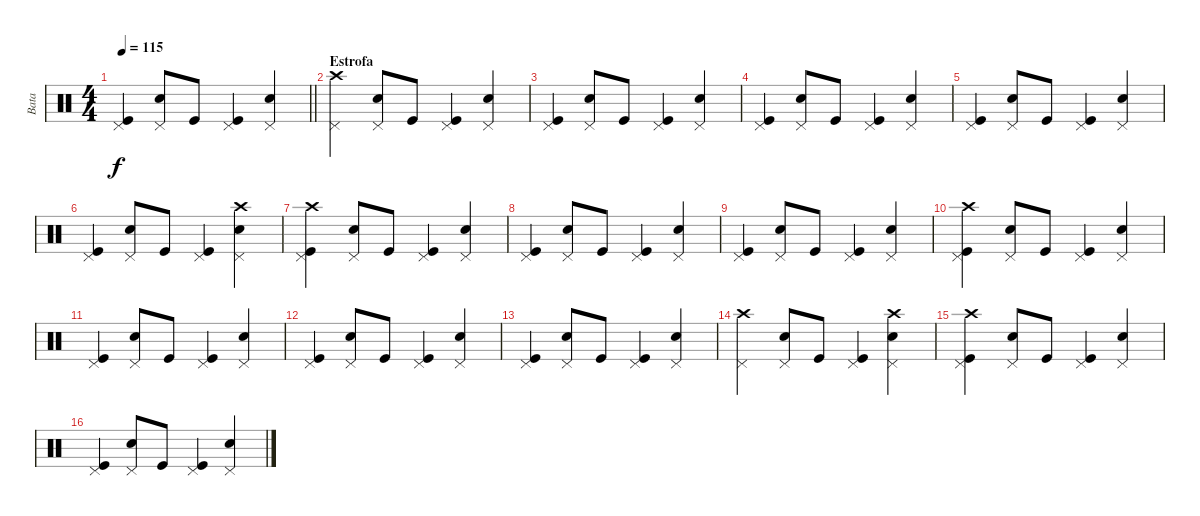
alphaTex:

\track ("Bata" "Bata") {instrument percussion}
\staff {score}
\articulation defaults
\ts (4 4)
\tempo 115
\clef neutral
\barLineRight lightlight
\ks c
("Kick (hit)" "Pedal Hi-Hat (hit)").4{dy f} ("Snare (hit) 2" "Pedal Hi-Hat (hit)").8 "Kick (hit)".8 ("Kick (hit)" "Pedal Hi-Hat (hit)").4 ("Snare (hit) 2" "Pedal Hi-Hat (hit)").4 |
\section ("" "Estrofa")
("Crash high (hit)" "Pedal Hi-Hat (hit)").4 ("Snare (hit) 2" "Pedal Hi-Hat (hit)").8 "Kick (hit)".8 ("Kick (hit)" "Pedal Hi-Hat (hit)").4 ("Snare (hit) 2" "Pedal Hi-Hat (hit)").4 |
("Kick (hit)" "Pedal Hi-Hat (hit)").4 ("Snare (hit) 2" "Pedal Hi-Hat (hit)").8 "Kick (hit)".8 ("Kick (hit)" "Pedal Hi-Hat (hit)").4 ("Snare (hit) 2" "Pedal Hi-Hat (hit)").4 |
("Kick (hit)" "Pedal Hi-Hat (hit)").4 ("Snare (hit) 2" "Pedal Hi-Hat (hit)").8 "Kick (hit)".8 ("Kick (hit)" "Pedal Hi-Hat (hit)").4 ("Snare (hit) 2" "Pedal Hi-Hat (hit)").4 |
("Kick (hit)" "Pedal Hi-Hat (hit)").4 ("Snare (hit) 2" "Pedal Hi-Hat (hit)").8 "Kick (hit)".8 ("Kick (hit)" "Pedal Hi-Hat (hit)").4 ("Snare (hit) 2" "Pedal Hi-Hat (hit)").4 |
("Kick (hit)" "Pedal Hi-Hat (hit)").4 ("Snare (hit) 2" "Pedal Hi-Hat (hit)").8 "Kick (hit)".8 ("Kick (hit)" "Pedal Hi-Hat (hit)").4 ("Snare (hit) 2" "Crash high (hit)" "Pedal Hi-Hat (hit)").4 |
("Kick (hit)" "Crash high (hit)" "Pedal Hi-Hat (hit)").4 ("Snare (hit) 2" "Pedal Hi-Hat (hit)").8 "Kick (hit)".8 ("Kick (hit)" "Pedal Hi-Hat (hit)").4 ("Snare (hit) 2" "Pedal Hi-Hat (hit)").4 |
("Kick (hit)" "Pedal Hi-Hat (hit)").4 ("Snare (hit) 2" "Pedal Hi-Hat (hit)").8 "Kick (hit)".8 ("Kick (hit)" "Pedal Hi-Hat (hit)").4 ("Snare (hit) 2" "Pedal Hi-Hat (hit)").4 |
("Kick (hit)" "Pedal Hi-Hat (hit)").4 ("Snare (hit) 2" "Pedal Hi-Hat (hit)").8 "Kick (hit)".8 ("Kick (hit)" "Pedal Hi-Hat (hit)").4 ("Snare (hit) 2" "Pedal Hi-Hat (hit)").4 |
("Kick (hit)" "Crash high (hit)" "Pedal Hi-Hat (hit)").4 ("Snare (hit) 2" "Pedal Hi-Hat (hit)").8 "Kick (hit)".8 ("Kick (hit)" "Pedal Hi-Hat (hit)").4 ("Snare (hit) 2" "Pedal Hi-Hat (hit)").4 |
("Kick (hit)" "Pedal Hi-Hat (hit)").4 ("Snare (hit) 2" "Pedal Hi-Hat (hit)").8 "Kick (hit)".8 ("Kick (hit)" "Pedal Hi-Hat (hit)").4 ("Snare (hit) 2" "Pedal Hi-Hat (hit)").4 |
("Kick (hit)" "Pedal Hi-Hat (hit)").4 ("Snare (hit) 2" "Pedal Hi-Hat (hit)").8 "Kick (hit)".8 ("Kick (hit)" "Pedal Hi-Hat (hit)").4 ("Snare (hit) 2" "Pedal Hi-Hat (hit)").4 |
("Kick (hit)" "Pedal Hi-Hat (hit)").4 ("Snare (hit) 2" "Pedal Hi-Hat (hit)").8 "Kick (hit)".8 ("Kick (hit)" "Pedal Hi-Hat (hit)").4 ("Snare (hit) 2" "Pedal Hi-Hat (hit)").4 |
("Crash high (hit)" "Pedal Hi-Hat (hit)").4 ("Snare (hit) 2" "Pedal Hi-Hat (hit)").8 "Kick (hit)".8 ("Kick (hit)" "Pedal Hi-Hat (hit)").4 ("Snare (hit) 2" "Crash high (hit)" "Pedal Hi-Hat (hit)").4 |
("Kick (hit)" "Crash high (hit)" "Pedal Hi-Hat (hit)").4 ("Snare (hit) 2" "Pedal Hi-Hat (hit)").8 "Kick (hit)".8 ("Kick (hit)" "Pedal Hi-Hat (hit)").4 ("Snare (hit) 2" "Pedal Hi-Hat (hit)").4 |
("Kick (hit)" "Pedal Hi-Hat (hit)").4 ("Snare (hit) 2" "Pedal Hi-Hat (hit)").8 "Kick (hit)".8 ("Kick (hit)" "Pedal Hi-Hat (hit)").4 ("Snare (hit) 2" "Pedal Hi-Hat (hit)").4
